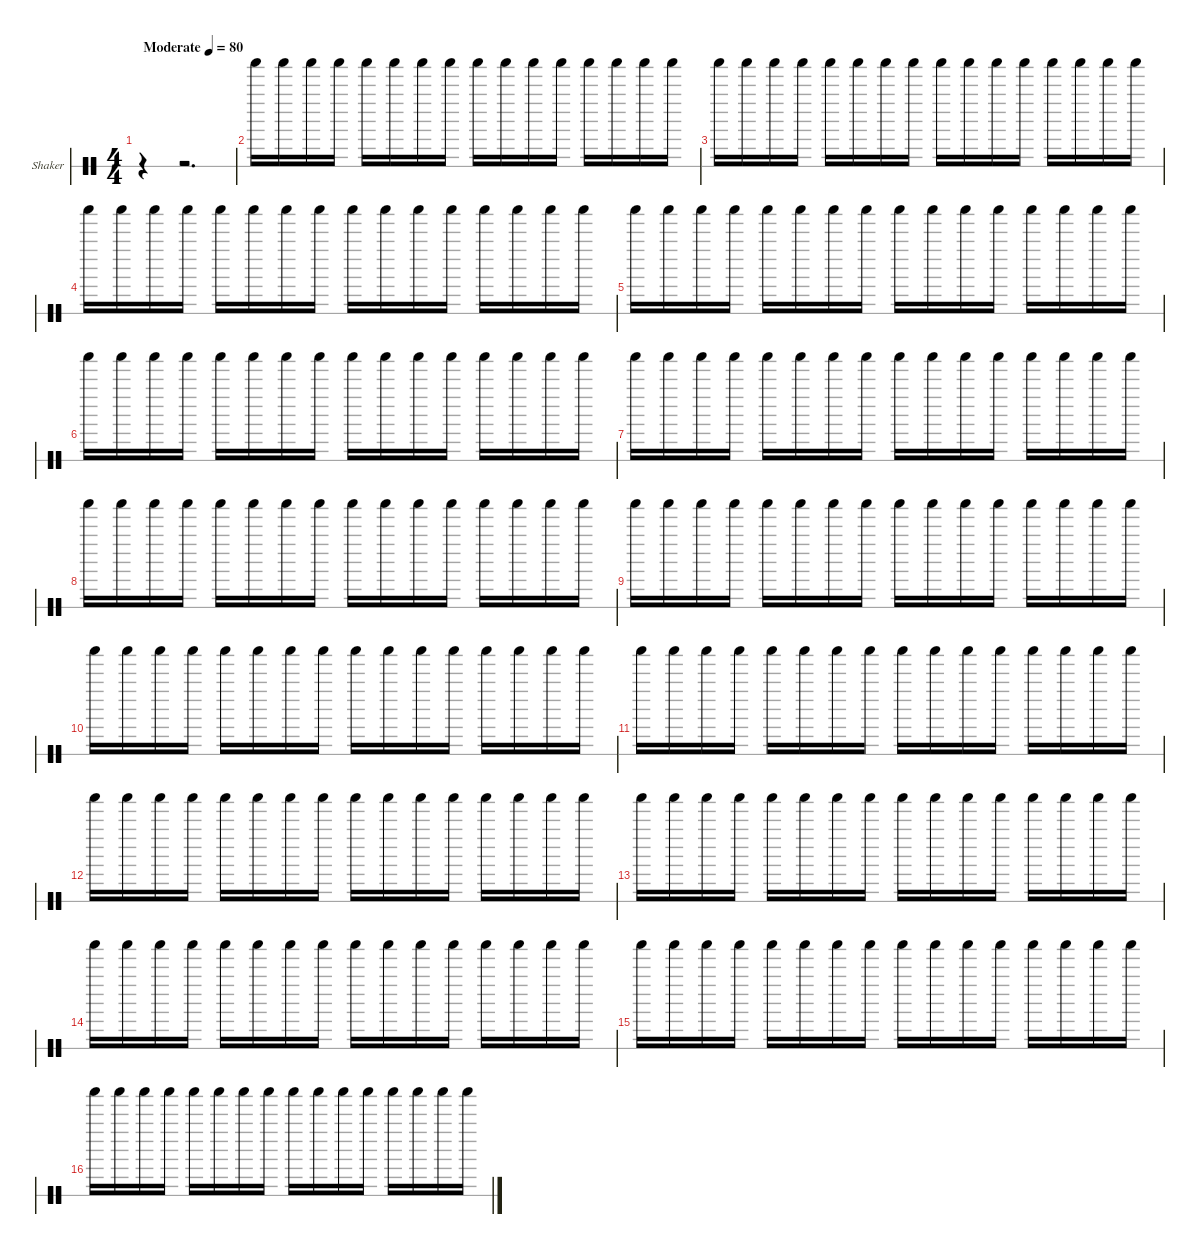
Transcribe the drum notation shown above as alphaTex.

\hideDynamics
\bracketExtendMode nobrackets
\firstSystemTrackNameOrientation horizontal
\otherSystemsTrackNameOrientation horizontal
\track ("Shaker" "Shaker") {instrument percussion}
\staff {score 1}
\articulation defaults
\ts (4 4)
\beaming (8 2 2 2 2)
\tempo (80 "Moderate")
\clef neutral
\ks c
r.4{dy f} r.2{d} |
"Shaker (hit)".16 "Shaker (hit)".16 "Shaker (hit)".16 "Shaker (hit)".16 "Shaker (hit)".16 "Shaker (hit)".16 "Shaker (hit)".16 "Shaker (hit)".16 "Shaker (hit)".16 "Shaker (hit)".16 "Shaker (hit)".16 "Shaker (hit)".16 "Shaker (hit)".16 "Shaker (hit)".16 "Shaker (hit)".16 "Shaker (hit)".16 |
"Shaker (hit)".16 "Shaker (hit)".16 "Shaker (hit)".16 "Shaker (hit)".16 "Shaker (hit)".16 "Shaker (hit)".16 "Shaker (hit)".16 "Shaker (hit)".16 "Shaker (hit)".16 "Shaker (hit)".16 "Shaker (hit)".16 "Shaker (hit)".16 "Shaker (hit)".16 "Shaker (hit)".16 "Shaker (hit)".16 "Shaker (hit)".16 |
"Shaker (hit)".16 "Shaker (hit)".16 "Shaker (hit)".16 "Shaker (hit)".16 "Shaker (hit)".16 "Shaker (hit)".16 "Shaker (hit)".16 "Shaker (hit)".16 "Shaker (hit)".16 "Shaker (hit)".16 "Shaker (hit)".16 "Shaker (hit)".16 "Shaker (hit)".16 "Shaker (hit)".16 "Shaker (hit)".16 "Shaker (hit)".16 |
"Shaker (hit)".16 "Shaker (hit)".16 "Shaker (hit)".16 "Shaker (hit)".16 "Shaker (hit)".16 "Shaker (hit)".16 "Shaker (hit)".16 "Shaker (hit)".16 "Shaker (hit)".16 "Shaker (hit)".16 "Shaker (hit)".16 "Shaker (hit)".16 "Shaker (hit)".16 "Shaker (hit)".16 "Shaker (hit)".16 "Shaker (hit)".16 |
"Shaker (hit)".16 "Shaker (hit)".16 "Shaker (hit)".16 "Shaker (hit)".16 "Shaker (hit)".16 "Shaker (hit)".16 "Shaker (hit)".16 "Shaker (hit)".16 "Shaker (hit)".16 "Shaker (hit)".16 "Shaker (hit)".16 "Shaker (hit)".16 "Shaker (hit)".16 "Shaker (hit)".16 "Shaker (hit)".16 "Shaker (hit)".16 |
"Shaker (hit)".16 "Shaker (hit)".16 "Shaker (hit)".16 "Shaker (hit)".16 "Shaker (hit)".16 "Shaker (hit)".16 "Shaker (hit)".16 "Shaker (hit)".16 "Shaker (hit)".16 "Shaker (hit)".16 "Shaker (hit)".16 "Shaker (hit)".16 "Shaker (hit)".16 "Shaker (hit)".16 "Shaker (hit)".16 "Shaker (hit)".16 |
"Shaker (hit)".16 "Shaker (hit)".16 "Shaker (hit)".16 "Shaker (hit)".16 "Shaker (hit)".16 "Shaker (hit)".16 "Shaker (hit)".16 "Shaker (hit)".16 "Shaker (hit)".16 "Shaker (hit)".16 "Shaker (hit)".16 "Shaker (hit)".16 "Shaker (hit)".16 "Shaker (hit)".16 "Shaker (hit)".16 "Shaker (hit)".16 |
"Shaker (hit)".16 "Shaker (hit)".16 "Shaker (hit)".16 "Shaker (hit)".16 "Shaker (hit)".16 "Shaker (hit)".16 "Shaker (hit)".16 "Shaker (hit)".16 "Shaker (hit)".16 "Shaker (hit)".16 "Shaker (hit)".16 "Shaker (hit)".16 "Shaker (hit)".16 "Shaker (hit)".16 "Shaker (hit)".16 "Shaker (hit)".16 |
"Shaker (hit)".16 "Shaker (hit)".16 "Shaker (hit)".16 "Shaker (hit)".16 "Shaker (hit)".16 "Shaker (hit)".16 "Shaker (hit)".16 "Shaker (hit)".16 "Shaker (hit)".16 "Shaker (hit)".16 "Shaker (hit)".16 "Shaker (hit)".16 "Shaker (hit)".16 "Shaker (hit)".16 "Shaker (hit)".16 "Shaker (hit)".16 |
"Shaker (hit)".16 "Shaker (hit)".16 "Shaker (hit)".16 "Shaker (hit)".16 "Shaker (hit)".16 "Shaker (hit)".16 "Shaker (hit)".16 "Shaker (hit)".16 "Shaker (hit)".16 "Shaker (hit)".16 "Shaker (hit)".16 "Shaker (hit)".16 "Shaker (hit)".16 "Shaker (hit)".16 "Shaker (hit)".16 "Shaker (hit)".16 |
"Shaker (hit)".16 "Shaker (hit)".16 "Shaker (hit)".16 "Shaker (hit)".16 "Shaker (hit)".16 "Shaker (hit)".16 "Shaker (hit)".16 "Shaker (hit)".16 "Shaker (hit)".16 "Shaker (hit)".16 "Shaker (hit)".16 "Shaker (hit)".16 "Shaker (hit)".16 "Shaker (hit)".16 "Shaker (hit)".16 "Shaker (hit)".16 |
"Shaker (hit)".16 "Shaker (hit)".16 "Shaker (hit)".16 "Shaker (hit)".16 "Shaker (hit)".16 "Shaker (hit)".16 "Shaker (hit)".16 "Shaker (hit)".16 "Shaker (hit)".16 "Shaker (hit)".16 "Shaker (hit)".16 "Shaker (hit)".16 "Shaker (hit)".16 "Shaker (hit)".16 "Shaker (hit)".16 "Shaker (hit)".16 |
"Shaker (hit)".16 "Shaker (hit)".16 "Shaker (hit)".16 "Shaker (hit)".16 "Shaker (hit)".16 "Shaker (hit)".16 "Shaker (hit)".16 "Shaker (hit)".16 "Shaker (hit)".16 "Shaker (hit)".16 "Shaker (hit)".16 "Shaker (hit)".16 "Shaker (hit)".16 "Shaker (hit)".16 "Shaker (hit)".16 "Shaker (hit)".16 |
"Shaker (hit)".16 "Shaker (hit)".16 "Shaker (hit)".16 "Shaker (hit)".16 "Shaker (hit)".16 "Shaker (hit)".16 "Shaker (hit)".16 "Shaker (hit)".16 "Shaker (hit)".16 "Shaker (hit)".16 "Shaker (hit)".16 "Shaker (hit)".16 "Shaker (hit)".16 "Shaker (hit)".16 "Shaker (hit)".16 "Shaker (hit)".16 |
"Shaker (hit)".16 "Shaker (hit)".16 "Shaker (hit)".16 "Shaker (hit)".16 "Shaker (hit)".16 "Shaker (hit)".16 "Shaker (hit)".16 "Shaker (hit)".16 "Shaker (hit)".16 "Shaker (hit)".16 "Shaker (hit)".16 "Shaker (hit)".16 "Shaker (hit)".16 "Shaker (hit)".16 "Shaker (hit)".16 "Shaker (hit)".16
